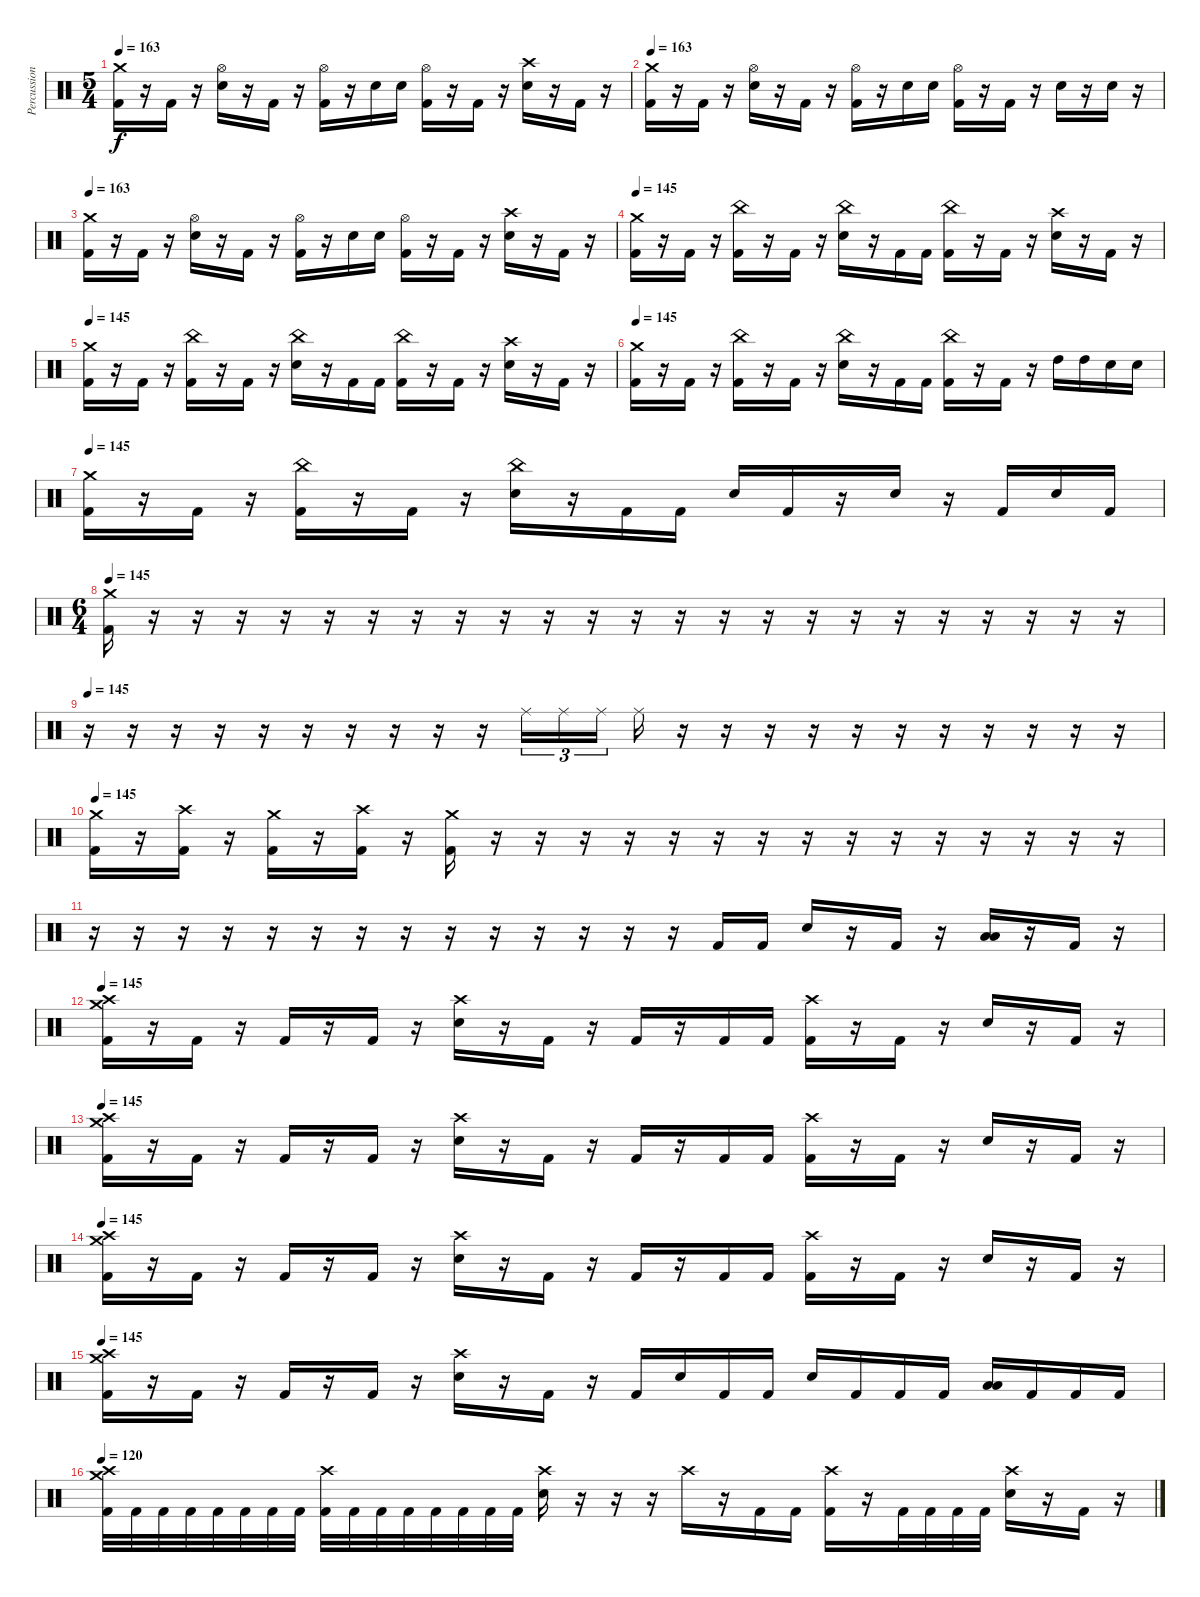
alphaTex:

\track ("Percussion" "Percussion") {instrument percussion}
\staff {score}
\articulation defaults
\ts (5 4)
\tempo 163
\clef neutral
\ks c
("Crash medium (hit)" "Kick (hit) 2").16{dy f} r.16 "Kick (hit) 2".16 r.16 ("Hi-Hat (open)" "Electric Snare (hit)").16 r.16 "Kick (hit) 2".16 r.16 ("Hi-Hat (open)" "Kick (hit) 2").16 r.16 "Electric Snare (hit)".16 "Electric Snare (hit)".16 ("Hi-Hat (open)" "Kick (hit) 2").16 r.16 "Kick (hit) 2".16 r.16 ("Crash high (hit)" "Electric Snare (hit)").16 r.16 "Kick (hit) 2".16 r.16 |
\tempo 163
("Crash medium (hit)" "Kick (hit) 2").16 r.16 "Kick (hit) 2".16 r.16 ("Hi-Hat (open)" "Electric Snare (hit)").16 r.16 "Kick (hit) 2".16 r.16 ("Hi-Hat (open)" "Kick (hit) 2").16 r.16 "Electric Snare (hit)".16 "Electric Snare (hit)".16 ("Hi-Hat (open)" "Kick (hit) 2").16 r.16 "Kick (hit) 2".16 r.16 "Electric Snare (hit)".16 r.16 "Electric Snare (hit)".16 r.16 |
\tempo 163
("Crash medium (hit)" "Kick (hit) 2").16 r.16 "Kick (hit) 2".16 r.16 ("Hi-Hat (open)" "Electric Snare (hit)").16 r.16 "Kick (hit) 2".16 r.16 ("Hi-Hat (open)" "Kick (hit) 2").16 r.16 "Electric Snare (hit)".16 "Electric Snare (hit)".16 ("Hi-Hat (open)" "Kick (hit) 2").16 r.16 "Kick (hit) 2".16 r.16 ("Crash high (hit)" "Electric Snare (hit)").16 r.16 "Kick (hit) 2".16 r.16 |
\tempo 145
("Crash medium (hit)" "Kick (hit) 2").16 r.16 "Kick (hit) 2".16 r.16 ("China (hit)" "Kick (hit) 2").16 r.16 "Kick (hit) 2".16 r.16 ("China (hit)" "Electric Snare (hit)").16 r.16 "Kick (hit) 2".16 "Kick (hit) 2".16 ("China (hit)" "Kick (hit) 2").16 r.16 "Kick (hit) 2".16 r.16 ("Crash high (hit)" "Electric Snare (hit)").16 r.16 "Kick (hit) 2".16 r.16 |
\tempo 145
("Crash medium (hit)" "Kick (hit) 2").16 r.16 "Kick (hit) 2".16 r.16 ("China (hit)" "Kick (hit) 2").16 r.16 "Kick (hit) 2".16 r.16 ("China (hit)" "Electric Snare (hit)").16 r.16 "Kick (hit) 2".16 "Kick (hit) 2".16 ("China (hit)" "Kick (hit) 2").16 r.16 "Kick (hit) 2".16 r.16 ("Crash high (hit)" "Electric Snare (hit)").16 r.16 "Kick (hit) 2".16 r.16 |
\tempo 145
("Crash medium (hit)" "Kick (hit) 2").16 r.16 "Kick (hit) 2".16 r.16 ("China (hit)" "Kick (hit) 2").16 r.16 "Kick (hit) 2".16 r.16 ("China (hit)" "Electric Snare (hit)").16 r.16 "Kick (hit) 2".16 "Kick (hit) 2".16 ("China (hit)" "Kick (hit) 2").16 r.16 "Kick (hit) 2".16 r.16 "High Tom (hit)".16 "High Tom (hit)".16 "Electric Snare (hit)".16 "Electric Snare (hit)".16 |
\tempo 145
("Crash medium (hit)" "Kick (hit) 2").16 r.16 "Kick (hit) 2".16 r.16 ("China (hit)" "Kick (hit) 2").16 r.16 "Kick (hit) 2".16 r.16 ("China (hit)" "Electric Snare (hit)").16 r.16 "Kick (hit) 2".16 "Kick (hit) 2".16 "Electric Snare (hit)".16 "Kick (hit) 2".16 r.16 "Electric Snare (hit)".16 r.16 "Kick (hit) 2".16 "Electric Snare (hit)".16 "Kick (hit) 2".16 |
\ts (6 4)
\tempo 145
("Crash medium (hit)" "Kick (hit) 2").16 r.16 r.16 r.16 r.16 r.16 r.16 r.16 r.16 r.16 r.16 r.16 r.16 r.16 r.16 r.16 r.16 r.16 r.16 r.16 r.16 r.16 r.16 r.16 |
\tempo 145
r.16 r.16 r.16 r.16 r.16 r.16 r.16 r.16 r.16 r.16 "Ride (middle)".16{tu (3 2)} "Ride (middle)".16{tu (3 2)} "Ride (middle)".16{tu (3 2)} "Ride (middle)".16 r.16 r.16 r.16 r.16 r.16 r.16 r.16 r.16 r.16 r.16 r.16 |
\tempo 145
("Crash medium (hit)" "Kick (hit) 2").16 r.16 ("Crash high (hit)" "Kick (hit) 2").16 r.16 ("Crash medium (hit)" "Kick (hit) 2").16 r.16 ("Crash high (hit)" "Kick (hit) 2").16 r.16 ("Crash medium (hit)" "Kick (hit) 2").16 r.16 r.16 r.16 r.16 r.16 r.16 r.16 r.16 r.16 r.16 r.16 r.16 r.16 r.16 r.16 |
r.16 r.16 r.16 r.16 r.16 r.16 r.16 r.16 r.16 r.16 r.16 r.16 r.16 r.16 "Kick (hit) 2".16 "Kick (hit) 2".16 "Electric Snare (hit)".16 r.16 "Kick (hit) 2".16 r.16 ("Low Tom (hit)" "Low Tom (hit)").16{bu 60} r.16 "Kick (hit) 2".16 r.16 |
\tempo 145
("Crash medium (hit)" "Crash high (hit)" "Kick (hit) 2").16 r.16 "Kick (hit) 2".16 r.16 "Kick (hit) 2".16 r.16 "Kick (hit) 2".16 r.16 ("Crash high (hit)" "Electric Snare (hit)").16 r.16 "Kick (hit) 2".16 r.16 "Kick (hit) 2".16 r.16 "Kick (hit) 2".16 "Kick (hit) 2".16 ("Crash high (hit)" "Kick (hit) 2").16 r.16 "Kick (hit) 2".16 r.16 "Electric Snare (hit)".16 r.16 "Kick (hit) 2".16 r.16 |
\tempo 145
("Crash medium (hit)" "Crash high (hit)" "Kick (hit) 2").16 r.16 "Kick (hit) 2".16 r.16 "Kick (hit) 2".16 r.16 "Kick (hit) 2".16 r.16 ("Crash high (hit)" "Electric Snare (hit)").16 r.16 "Kick (hit) 2".16 r.16 "Kick (hit) 2".16 r.16 "Kick (hit) 2".16 "Kick (hit) 2".16 ("Crash high (hit)" "Kick (hit) 2").16 r.16 "Kick (hit) 2".16 r.16 "Electric Snare (hit)".16 r.16 "Kick (hit) 2".16 r.16 |
\tempo 145
("Crash medium (hit)" "Crash high (hit)" "Kick (hit) 2").16 r.16 "Kick (hit) 2".16 r.16 "Kick (hit) 2".16 r.16 "Kick (hit) 2".16 r.16 ("Crash high (hit)" "Electric Snare (hit)").16 r.16 "Kick (hit) 2".16 r.16 "Kick (hit) 2".16 r.16 "Kick (hit) 2".16 "Kick (hit) 2".16 ("Crash high (hit)" "Kick (hit) 2").16 r.16 "Kick (hit) 2".16 r.16 "Electric Snare (hit)".16 r.16 "Kick (hit) 2".16 r.16 |
\tempo 145
("Crash medium (hit)" "Crash high (hit)" "Kick (hit) 2").16 r.16 "Kick (hit) 2".16 r.16 "Kick (hit) 2".16 r.16 "Kick (hit) 2".16 r.16 ("Crash high (hit)" "Electric Snare (hit)").16 r.16 "Kick (hit) 2".16 r.16 "Kick (hit) 2".16 "Electric Snare (hit)".16 "Kick (hit) 2".16 "Kick (hit) 2".16 "Electric Snare (hit)".16 "Kick (hit) 2".16 "Kick (hit) 2".16 "Kick (hit) 2".16 ("Low Tom (hit)" "Low Tom (hit)").16{bu 60} "Kick (hit) 2".16 "Kick (hit) 2".16 "Kick (hit) 2".16 |
\tempo 120
("Crash medium (hit)" "Crash high (hit)" "Kick (hit) 2").32 "Kick (hit) 2".32 "Kick (hit) 2".32 "Kick (hit) 2".32 "Kick (hit) 2".32 "Kick (hit) 2".32 "Kick (hit) 2".32 "Kick (hit) 2".32 ("Crash high (hit)" "Kick (hit) 2").32 "Kick (hit) 2".32 "Kick (hit) 2".32 "Kick (hit) 2".32 "Kick (hit) 2".32 "Kick (hit) 2".32 "Kick (hit) 2".32 "Kick (hit) 2".32 ("Crash high (hit)" "Electric Snare (hit)").16 r.16 r.16 r.16 "Crash high (hit)".16 r.16 "Kick (hit) 2".16 "Kick (hit) 2".16 ("Crash high (hit)" "Kick (hit) 2").16 r.16 "Kick (hit) 2".32 "Kick (hit) 2".32 "Kick (hit) 2".32 "Kick (hit) 2".32 ("Crash high (hit)" "Electric Snare (hit)").16 r.16 "Kick (hit) 2".16 r.16
